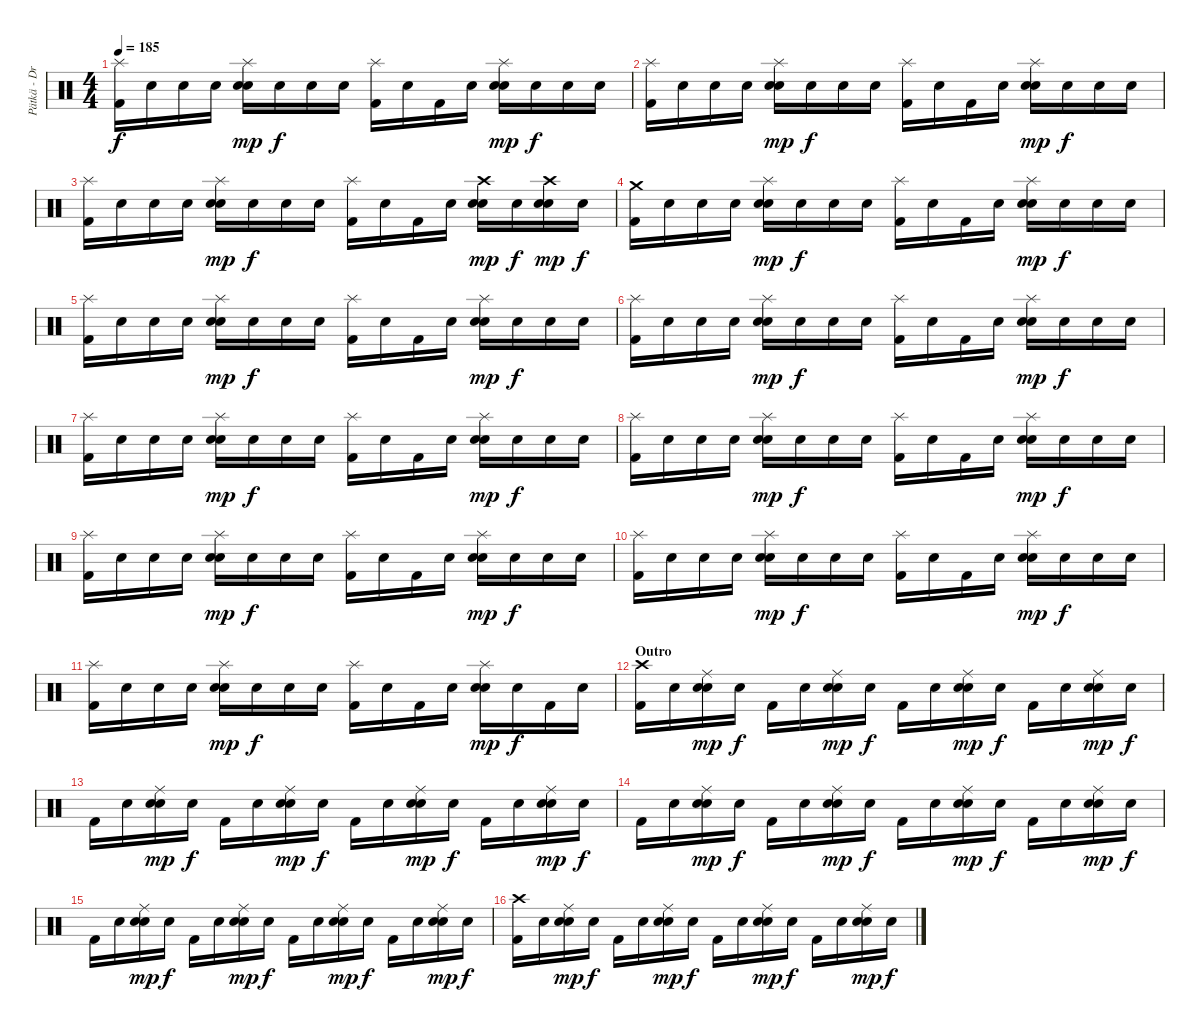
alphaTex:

\track ("Pätkä - Drums" "Pätkä - Dr") {instrument percussion}
\staff {score}
\articulation defaults
\ts (4 4)
\tempo 185
\clef neutral
\ks c
("Splash (hit)" "Kick (hit) 2").16{dy f} "Snare (hit)".16 "Snare (hit)".16 "Snare (hit)".16 ("Splash (hit)" "Electric Snare (hit)" "Snare (hit) 2").16{dy mp} "Snare (hit)".16{dy f} "Snare (hit)".16 "Snare (hit)".16 ("Splash (hit)" "Kick (hit) 2").16 "Snare (hit)".16 "Kick (hit) 2".16 "Snare (hit)".16 ("Splash (hit)" "Electric Snare (hit)" "Snare (hit) 2").16{dy mp} "Snare (hit)".16{dy f} "Snare (hit)".16 "Snare (hit)".16 |
("Splash (hit)" "Kick (hit) 2").16 "Snare (hit)".16 "Snare (hit)".16 "Snare (hit)".16 ("Splash (hit)" "Electric Snare (hit)" "Snare (hit) 2").16{dy mp} "Snare (hit)".16{dy f} "Snare (hit)".16 "Snare (hit)".16 ("Splash (hit)" "Kick (hit) 2").16 "Snare (hit)".16 "Kick (hit) 2".16 "Snare (hit)".16 ("Splash (hit)" "Electric Snare (hit)" "Snare (hit) 2").16{dy mp} "Snare (hit)".16{dy f} "Snare (hit)".16 "Snare (hit)".16 |
("Splash (hit)" "Kick (hit) 2").16 "Snare (hit)".16 "Snare (hit)".16 "Snare (hit)".16 ("Splash (hit)" "Electric Snare (hit)" "Snare (hit) 2").16{dy mp} "Snare (hit)".16{dy f} "Snare (hit)".16 "Snare (hit)".16 ("Splash (hit)" "Kick (hit) 2").16 "Snare (hit)".16 "Kick (hit) 2".16 "Snare (hit)".16 ("Crash high (hit)" "Electric Snare (hit)" "Snare (hit) 2").16{dy mp} "Snare (hit)".16{dy f} ("Crash high (hit)" "Electric Snare (hit)" "Snare (hit) 2").16{dy mp} "Snare (hit)".16{dy f} |
("Crash medium (hit)" "Kick (hit) 2").16 "Snare (hit)".16 "Snare (hit)".16 "Snare (hit)".16 ("Splash (hit)" "Electric Snare (hit)" "Snare (hit) 2").16{dy mp} "Snare (hit)".16{dy f} "Snare (hit)".16 "Snare (hit)".16 ("Splash (hit)" "Kick (hit) 2").16 "Snare (hit)".16 "Kick (hit) 2".16 "Snare (hit)".16 ("Splash (hit)" "Electric Snare (hit)" "Snare (hit) 2").16{dy mp} "Snare (hit)".16{dy f} "Snare (hit)".16 "Snare (hit)".16 |
("Splash (hit)" "Kick (hit) 2").16 "Snare (hit)".16 "Snare (hit)".16 "Snare (hit)".16 ("Splash (hit)" "Electric Snare (hit)" "Snare (hit) 2").16{dy mp} "Snare (hit)".16{dy f} "Snare (hit)".16 "Snare (hit)".16 ("Splash (hit)" "Kick (hit) 2").16 "Snare (hit)".16 "Kick (hit) 2".16 "Snare (hit)".16 ("Splash (hit)" "Electric Snare (hit)" "Snare (hit) 2").16{dy mp} "Snare (hit)".16{dy f} "Snare (hit)".16 "Snare (hit)".16 |
("Splash (hit)" "Kick (hit) 2").16 "Snare (hit)".16 "Snare (hit)".16 "Snare (hit)".16 ("Splash (hit)" "Electric Snare (hit)" "Snare (hit) 2").16{dy mp} "Snare (hit)".16{dy f} "Snare (hit)".16 "Snare (hit)".16 ("Splash (hit)" "Kick (hit) 2").16 "Snare (hit)".16 "Kick (hit) 2".16 "Snare (hit)".16 ("Splash (hit)" "Electric Snare (hit)" "Snare (hit) 2").16{dy mp} "Snare (hit)".16{dy f} "Snare (hit)".16 "Snare (hit)".16 |
("Splash (hit)" "Kick (hit) 2").16 "Snare (hit)".16 "Snare (hit)".16 "Snare (hit)".16 ("Splash (hit)" "Electric Snare (hit)" "Snare (hit) 2").16{dy mp} "Snare (hit)".16{dy f} "Snare (hit)".16 "Snare (hit)".16 ("Splash (hit)" "Kick (hit) 2").16 "Snare (hit)".16 "Kick (hit) 2".16 "Snare (hit)".16 ("Splash (hit)" "Electric Snare (hit)" "Snare (hit) 2").16{dy mp} "Snare (hit)".16{dy f} "Snare (hit)".16 "Snare (hit)".16 |
("Splash (hit)" "Kick (hit) 2").16 "Snare (hit)".16 "Snare (hit)".16 "Snare (hit)".16 ("Splash (hit)" "Electric Snare (hit)" "Snare (hit) 2").16{dy mp} "Snare (hit)".16{dy f} "Snare (hit)".16 "Snare (hit)".16 ("Splash (hit)" "Kick (hit) 2").16 "Snare (hit)".16 "Kick (hit) 2".16 "Snare (hit)".16 ("Splash (hit)" "Electric Snare (hit)" "Snare (hit) 2").16{dy mp} "Snare (hit)".16{dy f} "Snare (hit)".16 "Snare (hit)".16 |
("Splash (hit)" "Kick (hit) 2").16 "Snare (hit)".16 "Snare (hit)".16 "Snare (hit)".16 ("Splash (hit)" "Electric Snare (hit)" "Snare (hit) 2").16{dy mp} "Snare (hit)".16{dy f} "Snare (hit)".16 "Snare (hit)".16 ("Splash (hit)" "Kick (hit) 2").16 "Snare (hit)".16 "Kick (hit) 2".16 "Snare (hit)".16 ("Splash (hit)" "Electric Snare (hit)" "Snare (hit) 2").16{dy mp} "Snare (hit)".16{dy f} "Snare (hit)".16 "Snare (hit)".16 |
("Splash (hit)" "Kick (hit) 2").16 "Snare (hit)".16 "Snare (hit)".16 "Snare (hit)".16 ("Splash (hit)" "Electric Snare (hit)" "Snare (hit) 2").16{dy mp} "Snare (hit)".16{dy f} "Snare (hit)".16 "Snare (hit)".16 ("Splash (hit)" "Kick (hit) 2").16 "Snare (hit)".16 "Kick (hit) 2".16 "Snare (hit)".16 ("Splash (hit)" "Electric Snare (hit)" "Snare (hit) 2").16{dy mp} "Snare (hit)".16{dy f} "Snare (hit)".16 "Snare (hit)".16 |
("Splash (hit)" "Kick (hit) 2").16 "Snare (hit)".16 "Snare (hit)".16 "Snare (hit)".16 ("Splash (hit)" "Electric Snare (hit)" "Snare (hit) 2").16{dy mp} "Snare (hit)".16{dy f} "Snare (hit)".16 "Snare (hit)".16 ("Splash (hit)" "Kick (hit) 2").16 "Snare (hit)".16 "Kick (hit) 2".16 "Snare (hit)".16 ("Splash (hit)" "Electric Snare (hit)" "Snare (hit) 2").16{dy mp} "Snare (hit)".16{dy f} "Kick (hit) 2".16 "Snare (hit)".16 |
\section ("" "Outro")
("Crash high (hit)" "Kick (hit) 2").16 "Snare (hit)".16 ("Ride (middle)" "Electric Snare (hit)" "Snare (hit) 2").16{dy mp} "Snare (hit)".16{dy f} "Kick (hit) 2".16 "Snare (hit)".16 ("Ride (middle)" "Electric Snare (hit)" "Snare (hit) 2").16{dy mp} "Snare (hit)".16{dy f} "Kick (hit) 2".16 "Snare (hit)".16 ("Ride (middle)" "Electric Snare (hit)" "Snare (hit) 2").16{dy mp} "Snare (hit)".16{dy f} "Kick (hit) 2".16 "Snare (hit)".16 ("Ride (middle)" "Electric Snare (hit)" "Snare (hit) 2").16{dy mp} "Snare (hit)".16{dy f} |
"Kick (hit) 2".16 "Snare (hit)".16 ("Ride (middle)" "Electric Snare (hit)" "Snare (hit) 2").16{dy mp} "Snare (hit)".16{dy f} "Kick (hit) 2".16 "Snare (hit)".16 ("Ride (middle)" "Electric Snare (hit)" "Snare (hit) 2").16{dy mp} "Snare (hit)".16{dy f} "Kick (hit) 2".16 "Snare (hit)".16 ("Ride (middle)" "Electric Snare (hit)" "Snare (hit) 2").16{dy mp} "Snare (hit)".16{dy f} "Kick (hit) 2".16 "Snare (hit)".16 ("Ride (middle)" "Electric Snare (hit)" "Snare (hit) 2").16{dy mp} "Snare (hit)".16{dy f} |
"Kick (hit) 2".16 "Snare (hit)".16 ("Ride (middle)" "Electric Snare (hit)" "Snare (hit) 2").16{dy mp} "Snare (hit)".16{dy f} "Kick (hit) 2".16 "Snare (hit)".16 ("Ride (middle)" "Electric Snare (hit)" "Snare (hit) 2").16{dy mp} "Snare (hit)".16{dy f} "Kick (hit) 2".16 "Snare (hit)".16 ("Ride (middle)" "Electric Snare (hit)" "Snare (hit) 2").16{dy mp} "Snare (hit)".16{dy f} "Kick (hit) 2".16 "Snare (hit)".16 ("Ride (middle)" "Electric Snare (hit)" "Snare (hit) 2").16{dy mp} "Snare (hit)".16{dy f} |
"Kick (hit) 2".16 "Snare (hit)".16 ("Ride (middle)" "Electric Snare (hit)" "Snare (hit) 2").16{dy mp} "Snare (hit)".16{dy f} "Kick (hit) 2".16 "Snare (hit)".16 ("Ride (middle)" "Electric Snare (hit)" "Snare (hit) 2").16{dy mp} "Snare (hit)".16{dy f} "Kick (hit) 2".16 "Snare (hit)".16 ("Ride (middle)" "Electric Snare (hit)" "Snare (hit) 2").16{dy mp} "Snare (hit)".16{dy f} "Kick (hit) 2".16 "Snare (hit)".16 ("Ride (middle)" "Electric Snare (hit)" "Snare (hit) 2").16{dy mp} "Snare (hit)".16{dy f} |
("Crash high (hit)" "Kick (hit) 2").16 "Snare (hit)".16 ("Ride (middle)" "Electric Snare (hit)" "Snare (hit) 2").16{dy mp} "Snare (hit)".16{dy f} "Kick (hit) 2".16 "Snare (hit)".16 ("Ride (middle)" "Electric Snare (hit)" "Snare (hit) 2").16{dy mp} "Snare (hit)".16{dy f} "Kick (hit) 2".16 "Snare (hit)".16 ("Ride (middle)" "Electric Snare (hit)" "Snare (hit) 2").16{dy mp} "Snare (hit)".16{dy f} "Kick (hit) 2".16 "Snare (hit)".16 ("Ride (middle)" "Electric Snare (hit)" "Snare (hit) 2").16{dy mp} "Snare (hit)".16{dy f}
